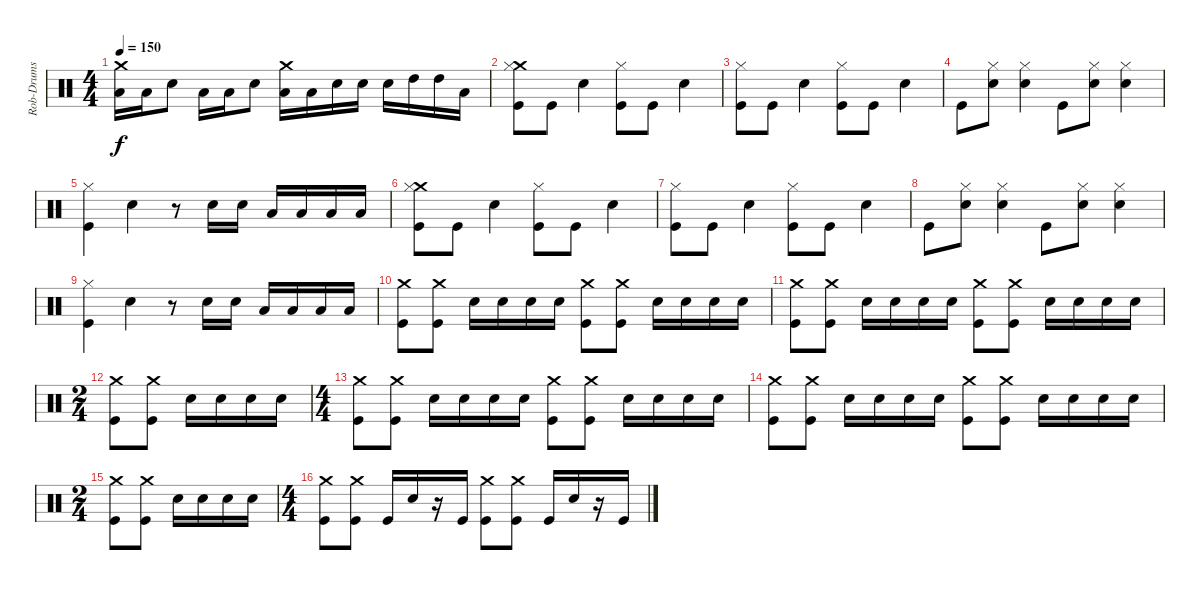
\track ("Rob-Drums" "Rob-Drums") {instrument percussion}
\staff {score}
\articulation defaults
\ts (4 4)
\tempo 150
\clef neutral
\ks c
("Crash medium (hit)" "Low Floor Tom (hit)").16{dy f} "Low Floor Tom (hit)".16 "Snare (hit) 2".8 "Low Floor Tom (hit)".16 "Low Floor Tom (hit)".16 "Snare (hit) 2".8 ("Crash medium (hit)" "Low Floor Tom (hit)").16 "Low Floor Tom (hit)".16 "Snare (hit) 2".16 "Snare (hit) 2".16 "Snare (hit) 2".16 "High Tom (hit)".16 "High Tom (hit)".16 "Low Floor Tom (hit)".16 |
("Crash medium (hit)" "Hi-Hat (closed)" "Kick (hit)").8 "Kick (hit)".8 "Snare (hit) 2".4 ("Hi-Hat (closed)" "Kick (hit)").8 "Kick (hit)".8 "Snare (hit) 2".4 |
("Hi-Hat (closed)" "Kick (hit)").8 "Kick (hit)".8 "Snare (hit) 2".4 ("Hi-Hat (closed)" "Kick (hit)").8 "Kick (hit)".8 "Snare (hit) 2".4 |
"Kick (hit)".8 ("Hi-Hat (closed)" "Snare (hit) 2").8 ("Hi-Hat (closed)" "Snare (hit) 2").4 "Kick (hit)".8 ("Hi-Hat (closed)" "Snare (hit) 2").8 ("Hi-Hat (closed)" "Snare (hit) 2").4 |
("Hi-Hat (closed)" "Kick (hit)").4 "Snare (hit) 2".4 r.8 "Snare (hit) 2".16 "Snare (hit) 2".16 "Low Tom (hit)".16 "Low Tom (hit)".16 "Low Floor Tom (hit)".16 "Low Floor Tom (hit)".16 |
("Crash medium (hit)" "Hi-Hat (closed)" "Kick (hit)").8 "Kick (hit)".8 "Snare (hit) 2".4 ("Hi-Hat (closed)" "Kick (hit)").8 "Kick (hit)".8 "Snare (hit) 2".4 |
("Hi-Hat (closed)" "Kick (hit)").8 "Kick (hit)".8 "Snare (hit) 2".4 ("Hi-Hat (closed)" "Kick (hit)").8 "Kick (hit)".8 "Snare (hit) 2".4 |
"Kick (hit)".8 ("Hi-Hat (closed)" "Snare (hit) 2").8 ("Hi-Hat (closed)" "Snare (hit) 2").4 "Kick (hit)".8 ("Hi-Hat (closed)" "Snare (hit) 2").8 ("Hi-Hat (closed)" "Snare (hit) 2").4 |
("Hi-Hat (closed)" "Kick (hit)").4 "Snare (hit) 2".4 r.8 "Snare (hit) 2".16 "Snare (hit) 2".16 "Low Tom (hit)".16 "Low Tom (hit)".16 "Low Floor Tom (hit)".16 "Low Floor Tom (hit)".16 |
("Crash medium (hit)" "Kick (hit)").8 ("Crash medium (hit)" "Kick (hit)").8 "Snare (hit) 2".16 "Snare (hit) 2".16 "Snare (hit) 2".16 "Snare (hit) 2".16 ("Crash medium (hit)" "Kick (hit)").8 ("Crash medium (hit)" "Kick (hit)").8 "Snare (hit) 2".16 "Snare (hit) 2".16 "Snare (hit) 2".16 "Snare (hit) 2".16 |
("Crash medium (hit)" "Kick (hit)").8 ("Crash medium (hit)" "Kick (hit)").8 "Snare (hit) 2".16 "Snare (hit) 2".16 "Snare (hit) 2".16 "Snare (hit) 2".16 ("Crash medium (hit)" "Kick (hit)").8 ("Crash medium (hit)" "Kick (hit)").8 "Snare (hit) 2".16 "Snare (hit) 2".16 "Snare (hit) 2".16 "Snare (hit) 2".16 |
\ts (2 4)
("Crash medium (hit)" "Kick (hit)").8 ("Crash medium (hit)" "Kick (hit)").8 "Snare (hit) 2".16 "Snare (hit) 2".16 "Snare (hit) 2".16 "Snare (hit) 2".16 |
\ts (4 4)
("Crash medium (hit)" "Kick (hit)").8 ("Crash medium (hit)" "Kick (hit)").8 "Snare (hit) 2".16 "Snare (hit) 2".16 "Snare (hit) 2".16 "Snare (hit) 2".16 ("Crash medium (hit)" "Kick (hit)").8 ("Crash medium (hit)" "Kick (hit)").8 "Snare (hit) 2".16 "Snare (hit) 2".16 "Snare (hit) 2".16 "Snare (hit) 2".16 |
("Crash medium (hit)" "Kick (hit)").8 ("Crash medium (hit)" "Kick (hit)").8 "Snare (hit) 2".16 "Snare (hit) 2".16 "Snare (hit) 2".16 "Snare (hit) 2".16 ("Crash medium (hit)" "Kick (hit)").8 ("Crash medium (hit)" "Kick (hit)").8 "Snare (hit) 2".16 "Snare (hit) 2".16 "Snare (hit) 2".16 "Snare (hit) 2".16 |
\ts (2 4)
("Crash medium (hit)" "Kick (hit)").8 ("Crash medium (hit)" "Kick (hit)").8 "Snare (hit) 2".16 "Snare (hit) 2".16 "Snare (hit) 2".16 "Snare (hit) 2".16 |
\ts (4 4)
("Crash medium (hit)" "Kick (hit)").8 ("Crash medium (hit)" "Kick (hit)").8 "Kick (hit)".16 "Snare (hit) 2".16 r.16 "Kick (hit)".16 ("Crash medium (hit)" "Kick (hit)").8 ("Crash medium (hit)" "Kick (hit)").8 "Kick (hit)".16 "Snare (hit) 2".16 r.16 "Kick (hit)".16
